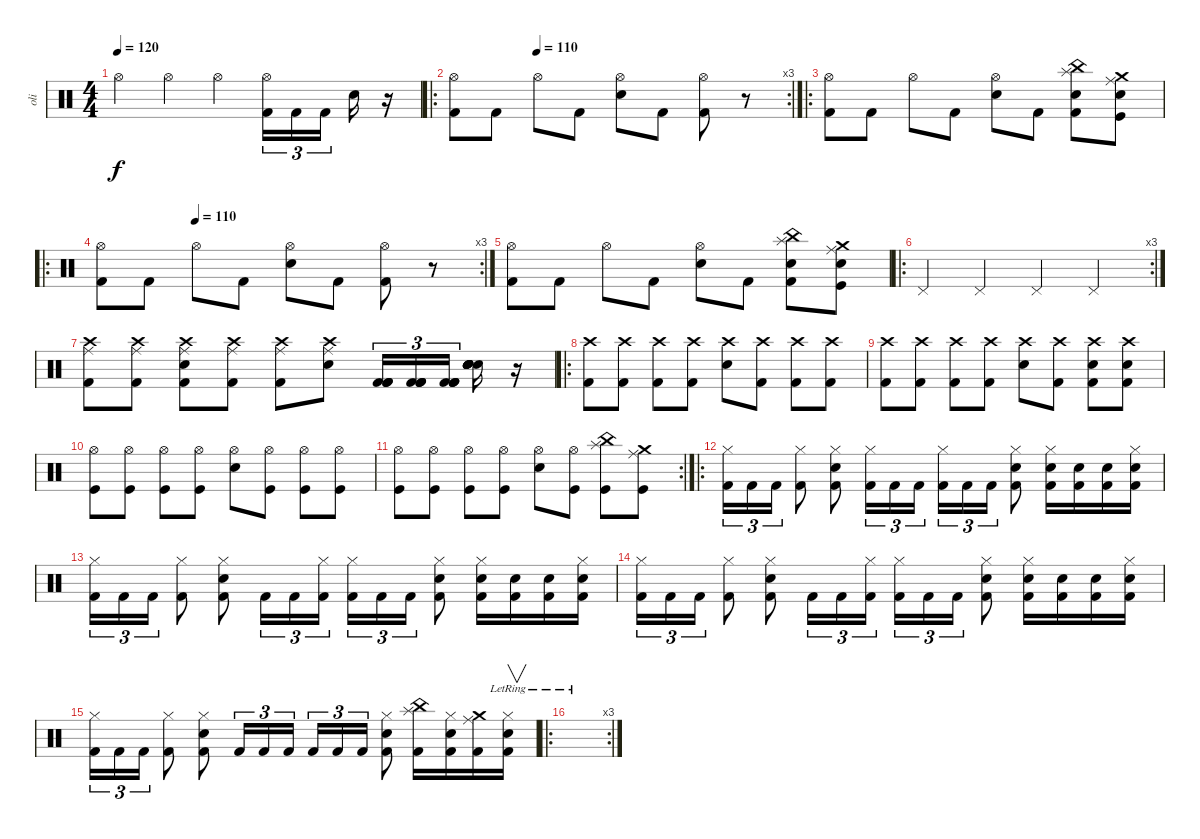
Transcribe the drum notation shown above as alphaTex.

\track ("oli" "oli") {instrument percussion}
\staff {score}
\articulation defaults
\ts (4 4)
\tempo 120
\clef neutral
\ks c "Hi-Hat (open)".4{dy f} "Hi-Hat (open)".4 "Hi-Hat (open)".4
("Hi-Hat (open)" "Kick (hit) 2").16{tu (3 2)} "Kick (hit) 2".16{tu (3 2)} "Kick (hit) 2".16{tu (3 2)} "Electric Snare (hit)".16 r.16 |
\ro
\rc 3
\tempo (110 0.25)
("Hi-Hat (open)" "Kick (hit) 2").8 "Kick (hit) 2".8 "Hi-Hat (open)".8 "Kick (hit) 2".8 ("Hi-Hat (open)" "Electric Snare (hit)").8 "Kick (hit) 2".8 ("Hi-Hat (open)" "Kick (hit) 2").8 r.8 |
\ro
("Hi-Hat (open)" "Kick (hit) 2").8 "Kick (hit) 2".8 "Hi-Hat (open)".8 "Kick (hit) 2".8 ("Hi-Hat (open)" "Electric Snare (hit)").8 "Kick (hit) 2".8 ("China (hit)" "Splash (hit)" "Electric Snare (hit)" "Kick (hit) 2").8 ("Ride (middle)" "Crash medium (hit)" "Electric Snare (hit)" "Kick (hit)").8 |
\ro
\rc 3
\tempo (110 0.25)
("Hi-Hat (open)" "Kick (hit) 2").8 "Kick (hit) 2".8 "Hi-Hat (open)".8 "Kick (hit) 2".8 ("Hi-Hat (open)" "Electric Snare (hit)").8 "Kick (hit) 2".8 ("Hi-Hat (open)" "Kick (hit) 2").8 r.8 |
("Hi-Hat (open)" "Kick (hit) 2").8 "Kick (hit) 2".8 "Hi-Hat (open)".8 "Kick (hit) 2".8 ("Hi-Hat (open)" "Electric Snare (hit)").8 "Kick (hit) 2".8 ("China (hit)" "Splash (hit)" "Electric Snare (hit)" "Kick (hit) 2").8 ("Ride (middle)" "Crash medium (hit)" "Electric Snare (hit)" "Kick (hit)").8 |
\ro
\rc 3 "Pedal Hi-Hat (hit)".4 "Pedal Hi-Hat (hit)".4 "Pedal Hi-Hat (hit)".4 "Pedal Hi-Hat (hit)".4
|
("Ride (middle)" "Crash high (hit)" "Kick (hit) 2").8{volume 5} ("Ride (middle)" "Crash high (hit)" "Kick (hit) 2").8{volume 6} ("Ride (middle)" "Crash high (hit)" "Electric Snare (hit)" "Kick (hit) 2").8{volume 7} ("Ride (middle)" "Crash high (hit)" "Kick (hit) 2").8{volume 10} ("Ride (middle)" "Crash high (hit)" "Kick (hit) 2").8{volume 11} ("Ride (middle)" "Crash high (hit)" "Electric Snare (hit)").8{volume 13} ("Kick (hit) 2" "Kick (hit) 2" "Kick (hit) 2" "Kick (hit) 2").16{tu (3 2) volume 16} ("Kick (hit) 2" "Kick (hit) 2" "Kick (hit) 2" "Kick (hit) 2").16{tu (3 2)} ("Kick (hit) 2" "Kick (hit) 2" "Kick (hit) 2" "Kick (hit) 2").16{tu (3 2)} ("Electric Snare (hit)" "Electric Snare (hit)" "Electric Snare (hit)" "Electric Snare (hit)" "Electric Snare (hit)" "Electric Snare (hit)").16 r.16 |
\ro
("Crash high (hit)" "Kick (hit) 2").8{balance 0} ("Crash high (hit)" "Kick (hit) 2").8{balance 16} ("Crash high (hit)" "Kick (hit) 2").8{balance 0} ("Crash high (hit)" "Kick (hit) 2").8{balance 16} ("Crash high (hit)" "Electric Snare (hit)").8{balance 0} ("Crash high (hit)" "Kick (hit) 2").8{balance 16} ("Crash high (hit)" "Kick (hit) 2").8{balance 0} ("Crash high (hit)" "Kick (hit) 2").8{balance 16} |
("Crash high (hit)" "Kick (hit) 2").8{balance 0} ("Crash high (hit)" "Kick (hit) 2").8{balance 16} ("Crash high (hit)" "Kick (hit) 2").8{balance 0} ("Crash high (hit)" "Kick (hit) 2").8{balance 16} ("Crash high (hit)" "Electric Snare (hit)").8{balance 0} ("Crash high (hit)" "Kick (hit) 2").8{balance 16} ("Crash high (hit)" "Electric Snare (hit)" "Kick (hit) 2").8{balance 0} ("Crash high (hit)" "Electric Snare (hit)" "Kick (hit) 2").8{balance 16} |
("Hi-Hat (open)" "Kick (hit)").8 ("Hi-Hat (open)" "Kick (hit)").8 ("Hi-Hat (open)" "Kick (hit)").8 ("Hi-Hat (open)" "Kick (hit)").8 ("Hi-Hat (open)" "Electric Snare (hit)").8 ("Hi-Hat (open)" "Kick (hit)").8 ("Hi-Hat (open)" "Kick (hit)").8 ("Hi-Hat (open)" "Kick (hit)").8 |
\rc 2
("Hi-Hat (open)" "Kick (hit)").8 ("Hi-Hat (open)" "Kick (hit)").8 ("Hi-Hat (open)" "Kick (hit)").8 ("Hi-Hat (open)" "Kick (hit)").8 ("Hi-Hat (open)" "Electric Snare (hit)").8 ("Hi-Hat (open)" "Kick (hit)").8 ("China (hit)" "Splash (hit)" "Kick (hit)").8 ("Ride (middle)" "Crash medium (hit)" "Kick (hit)").8 |
\ro
("Hi-Hat (closed)" "Kick (hit) 2").16{tu (3 2)} "Kick (hit) 2".16{tu (3 2)} "Kick (hit) 2".16{tu (3 2)} ("Hi-Hat (closed)" "Kick (hit) 2").8 ("Hi-Hat (closed)" "Electric Snare (hit)" "Kick (hit) 2").8 ("Hi-Hat (closed)" "Kick (hit) 2").16{tu (3 2)} "Kick (hit) 2".16{tu (3 2)} "Kick (hit) 2".16{tu (3 2)} ("Hi-Hat (closed)" "Kick (hit) 2").16{tu (3 2)} "Kick (hit) 2".16{tu (3 2)} "Kick (hit) 2".16{tu (3 2)} ("Hi-Hat (closed)" "Electric Snare (hit)" "Kick (hit) 2").8 ("Hi-Hat (closed)" "Electric Snare (hit)" "Kick (hit) 2").16 ("Electric Snare (hit)" "Kick (hit) 2").16 ("Electric Snare (hit)" "Kick (hit) 2").16 ("Hi-Hat (closed)" "Electric Snare (hit)" "Kick (hit) 2").16 |
("Hi-Hat (closed)" "Kick (hit) 2").16{tu (3 2)} "Kick (hit) 2".16{tu (3 2)} "Kick (hit) 2".16{tu (3 2)} ("Hi-Hat (closed)" "Kick (hit) 2").8 ("Hi-Hat (closed)" "Electric Snare (hit)" "Kick (hit) 2").8 "Kick (hit) 2".16{tu (3 2)} "Kick (hit) 2".16{tu (3 2)} ("Hi-Hat (closed)" "Kick (hit) 2").16{tu (3 2)} ("Hi-Hat (closed)" "Kick (hit) 2").16{tu (3 2)} "Kick (hit) 2".16{tu (3 2)} "Kick (hit) 2".16{tu (3 2)} ("Hi-Hat (closed)" "Electric Snare (hit)" "Kick (hit) 2").8 ("Hi-Hat (closed)" "Electric Snare (hit)" "Kick (hit) 2").16 ("Electric Snare (hit)" "Kick (hit) 2").16 ("Electric Snare (hit)" "Kick (hit) 2").16 ("Hi-Hat (closed)" "Electric Snare (hit)" "Kick (hit) 2").16 |
("Hi-Hat (closed)" "Kick (hit) 2").16{tu (3 2)} "Kick (hit) 2".16{tu (3 2)} "Kick (hit) 2".16{tu (3 2)} ("Hi-Hat (closed)" "Kick (hit) 2").8 ("Hi-Hat (closed)" "Electric Snare (hit)" "Kick (hit) 2").8 "Kick (hit) 2".16{tu (3 2)} "Kick (hit) 2".16{tu (3 2)} ("Hi-Hat (closed)" "Kick (hit) 2").16{tu (3 2)} ("Hi-Hat (closed)" "Kick (hit) 2").16{tu (3 2)} "Kick (hit) 2".16{tu (3 2)} "Kick (hit) 2".16{tu (3 2)} ("Hi-Hat (closed)" "Electric Snare (hit)" "Kick (hit) 2").8 ("Hi-Hat (closed)" "Electric Snare (hit)" "Kick (hit) 2").16 ("Electric Snare (hit)" "Kick (hit) 2").16 ("Electric Snare (hit)" "Kick (hit) 2").16 ("Hi-Hat (closed)" "Electric Snare (hit)" "Kick (hit) 2").16 |
("Hi-Hat (closed)" "Kick (hit) 2").16{tu (3 2)} "Kick (hit) 2".16{tu (3 2)} "Kick (hit) 2".16{tu (3 2)} ("Hi-Hat (closed)" "Kick (hit) 2").8 ("Hi-Hat (closed)" "Electric Snare (hit)" "Kick (hit) 2").8 "Kick (hit) 2".16{tu (3 2)} "Kick (hit) 2".16{tu (3 2)} "Kick (hit) 2".16{tu (3 2)} "Kick (hit) 2".16{tu (3 2)} "Kick (hit) 2".16{tu (3 2)} "Kick (hit) 2".16{tu (3 2)} ("Hi-Hat (closed)" "Electric Snare (hit)" "Kick (hit) 2").8 ("China (hit)" "Splash (hit)" "Kick (hit) 2").16 ("Hi-Hat (closed)" "Electric Snare (hit)" "Kick (hit) 2").16 ("Ride (middle)" "Crash medium (hit)" "Kick (hit) 2").16 ("Hi-Hat (closed)"{lr} "Electric Snare (hit)"{lr} "Kick (hit) 2"{lr}).16{v} |
\ro
\rc 3
